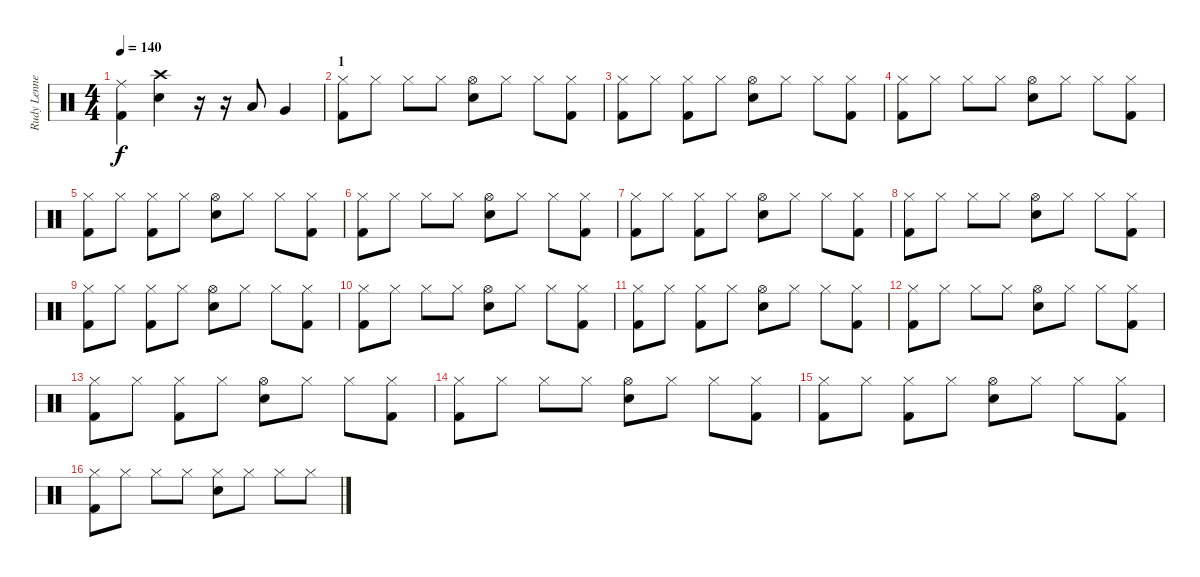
\track ("Rudy Lenners" "Rudy Lenne") {instrument percussion}
\staff {score}
\articulation defaults
\ts (4 4)
\tempo 140
\clef neutral
\ks c
("Ride (middle)" "Kick (hit) 2").4{dy f} ("Crash high (hit)" "Snare (hit) 2").4 r.16 r.16 "Low Tom (hit)".8 "Very Low Tom (hit)".4 |
\section ("" "1")
("Hi-Hat (closed)" "Kick (hit) 2").8 "Hi-Hat (closed)".8 "Hi-Hat (closed)".8 "Hi-Hat (closed)".8 ("Hi-Hat (open)" "Snare (hit) 2").8 "Hi-Hat (closed)".8 "Hi-Hat (closed)".8 ("Hi-Hat (closed)" "Kick (hit) 2").8 |
("Hi-Hat (closed)" "Kick (hit) 2").8 "Hi-Hat (closed)".8 ("Hi-Hat (closed)" "Kick (hit) 2").8 "Hi-Hat (closed)".8 ("Hi-Hat (open)" "Snare (hit) 2").8 "Hi-Hat (closed)".8 "Hi-Hat (closed)".8 ("Hi-Hat (closed)" "Kick (hit) 2").8 |
("Hi-Hat (closed)" "Kick (hit) 2").8 "Hi-Hat (closed)".8 "Hi-Hat (closed)".8 "Hi-Hat (closed)".8 ("Hi-Hat (open)" "Snare (hit) 2").8 "Hi-Hat (closed)".8 "Hi-Hat (closed)".8 ("Hi-Hat (closed)" "Kick (hit) 2").8 |
("Hi-Hat (closed)" "Kick (hit) 2").8 "Hi-Hat (closed)".8 ("Hi-Hat (closed)" "Kick (hit) 2").8 "Hi-Hat (closed)".8 ("Hi-Hat (open)" "Snare (hit) 2").8 "Hi-Hat (closed)".8 "Hi-Hat (closed)".8 ("Hi-Hat (closed)" "Kick (hit) 2").8 |
("Hi-Hat (closed)" "Kick (hit) 2").8 "Hi-Hat (closed)".8 "Hi-Hat (closed)".8 "Hi-Hat (closed)".8 ("Hi-Hat (open)" "Snare (hit) 2").8 "Hi-Hat (closed)".8 "Hi-Hat (closed)".8 ("Hi-Hat (closed)" "Kick (hit) 2").8 |
("Hi-Hat (closed)" "Kick (hit) 2").8 "Hi-Hat (closed)".8 ("Hi-Hat (closed)" "Kick (hit) 2").8 "Hi-Hat (closed)".8 ("Hi-Hat (open)" "Snare (hit) 2").8 "Hi-Hat (closed)".8 "Hi-Hat (closed)".8 ("Hi-Hat (closed)" "Kick (hit) 2").8 |
("Hi-Hat (closed)" "Kick (hit) 2").8 "Hi-Hat (closed)".8 "Hi-Hat (closed)".8 "Hi-Hat (closed)".8 ("Hi-Hat (open)" "Snare (hit) 2").8 "Hi-Hat (closed)".8 "Hi-Hat (closed)".8 ("Hi-Hat (closed)" "Kick (hit) 2").8 |
("Hi-Hat (closed)" "Kick (hit) 2").8 "Hi-Hat (closed)".8 ("Hi-Hat (closed)" "Kick (hit) 2").8 "Hi-Hat (closed)".8 ("Hi-Hat (open)" "Snare (hit) 2").8 "Hi-Hat (closed)".8 "Hi-Hat (closed)".8 ("Hi-Hat (closed)" "Kick (hit) 2").8 |
("Hi-Hat (closed)" "Kick (hit) 2").8 "Hi-Hat (closed)".8 "Hi-Hat (closed)".8 "Hi-Hat (closed)".8 ("Hi-Hat (open)" "Snare (hit) 2").8 "Hi-Hat (closed)".8 "Hi-Hat (closed)".8 ("Hi-Hat (closed)" "Kick (hit) 2").8 |
("Hi-Hat (closed)" "Kick (hit) 2").8 "Hi-Hat (closed)".8 ("Hi-Hat (closed)" "Kick (hit) 2").8 "Hi-Hat (closed)".8 ("Hi-Hat (open)" "Snare (hit) 2").8 "Hi-Hat (closed)".8 "Hi-Hat (closed)".8 ("Hi-Hat (closed)" "Kick (hit) 2").8 |
("Hi-Hat (closed)" "Kick (hit) 2").8 "Hi-Hat (closed)".8 "Hi-Hat (closed)".8 "Hi-Hat (closed)".8 ("Hi-Hat (open)" "Snare (hit) 2").8 "Hi-Hat (closed)".8 "Hi-Hat (closed)".8 ("Hi-Hat (closed)" "Kick (hit) 2").8 |
("Hi-Hat (closed)" "Kick (hit) 2").8 "Hi-Hat (closed)".8 ("Hi-Hat (closed)" "Kick (hit) 2").8 "Hi-Hat (closed)".8 ("Hi-Hat (open)" "Snare (hit) 2").8 "Hi-Hat (closed)".8 "Hi-Hat (closed)".8 ("Hi-Hat (closed)" "Kick (hit) 2").8 |
("Hi-Hat (closed)" "Kick (hit) 2").8 "Hi-Hat (closed)".8 "Hi-Hat (closed)".8 "Hi-Hat (closed)".8 ("Hi-Hat (open)" "Snare (hit) 2").8 "Hi-Hat (closed)".8 "Hi-Hat (closed)".8 ("Hi-Hat (closed)" "Kick (hit) 2").8 |
("Hi-Hat (closed)" "Kick (hit) 2").8 "Hi-Hat (closed)".8 ("Hi-Hat (closed)" "Kick (hit) 2").8 "Hi-Hat (closed)".8 ("Hi-Hat (open)" "Snare (hit) 2").8 "Hi-Hat (closed)".8 "Hi-Hat (closed)".8 ("Hi-Hat (closed)" "Kick (hit) 2").8 |
("Hi-Hat (closed)" "Kick (hit) 2").8 "Hi-Hat (closed)".8 "Hi-Hat (closed)".8 "Hi-Hat (closed)".8 ("Hi-Hat (closed)" "Snare (hit) 2").8 "Hi-Hat (closed)".8 "Hi-Hat (closed)".8 "Hi-Hat (closed)".8
